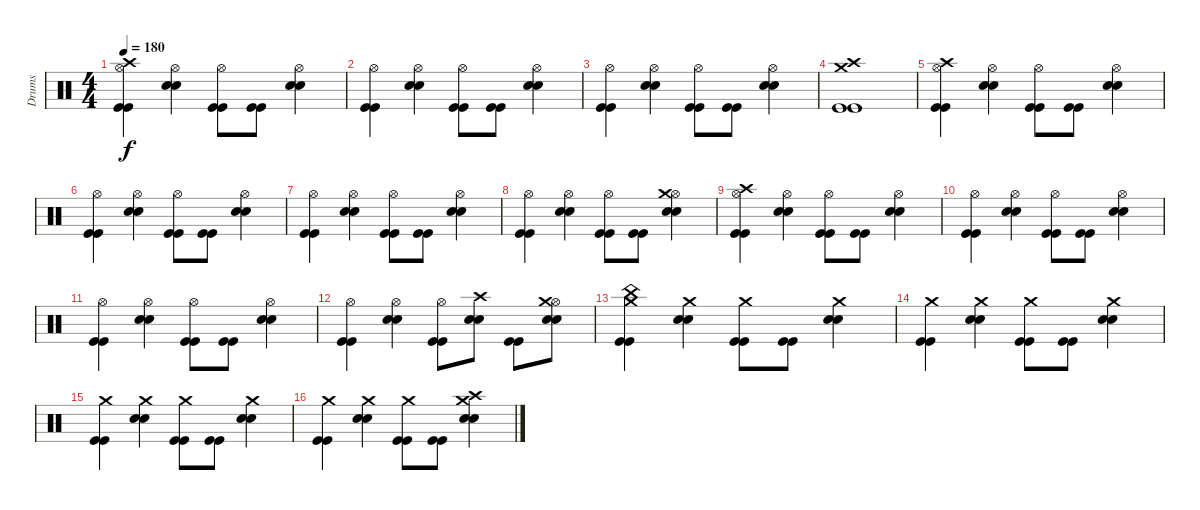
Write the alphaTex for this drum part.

\track ("Drums" "Drums") {instrument percussion}
\staff {score}
\articulation defaults
\ts (4 4)
\tempo 180
\clef neutral
\ks c
("Kick (hit)" "Kick (hit)" "Hi-Hat (open)" "Crash high (hit)").4{dy f} ("Snare (hit) 2" "Snare (hit) 2" "Hi-Hat (open)").4 ("Kick (hit)" "Kick (hit)" "Hi-Hat (open)").8 ("Kick (hit)" "Kick (hit)").8 ("Snare (hit) 2" "Snare (hit) 2" "Hi-Hat (open)").4 |
("Kick (hit)" "Kick (hit)" "Hi-Hat (open)").4 ("Snare (hit) 2" "Snare (hit) 2" "Hi-Hat (open)").4 ("Kick (hit)" "Kick (hit)" "Hi-Hat (open)").8 ("Kick (hit)" "Kick (hit)").8 ("Snare (hit) 2" "Snare (hit) 2" "Hi-Hat (open)").4 |
("Kick (hit)" "Kick (hit)" "Hi-Hat (open)").4 ("Snare (hit) 2" "Snare (hit) 2" "Hi-Hat (open)").4 ("Kick (hit)" "Kick (hit)" "Hi-Hat (open)").8 ("Kick (hit)" "Kick (hit)").8 ("Snare (hit) 2" "Snare (hit) 2" "Hi-Hat (open)").4 |
("Kick (hit)" "Kick (hit)" "Crash medium (hit)" "Crash high (hit)").1 |
("Kick (hit)" "Kick (hit)" "Hi-Hat (open)" "Crash high (hit)").4 ("Snare (hit) 2" "Snare (hit) 2" "Hi-Hat (open)").4 ("Kick (hit)" "Kick (hit)" "Hi-Hat (open)").8 ("Kick (hit)" "Kick (hit)").8 ("Snare (hit) 2" "Snare (hit) 2" "Hi-Hat (open)").4 |
("Kick (hit)" "Kick (hit)" "Hi-Hat (open)").4 ("Snare (hit) 2" "Snare (hit) 2" "Hi-Hat (open)").4 ("Kick (hit)" "Kick (hit)" "Hi-Hat (open)").8 ("Kick (hit)" "Kick (hit)").8 ("Snare (hit) 2" "Snare (hit) 2" "Hi-Hat (open)").4 |
("Kick (hit)" "Kick (hit)" "Hi-Hat (open)").4 ("Snare (hit) 2" "Snare (hit) 2" "Hi-Hat (open)").4 ("Kick (hit)" "Kick (hit)" "Hi-Hat (open)").8 ("Kick (hit)" "Kick (hit)").8 ("Snare (hit) 2" "Snare (hit) 2" "Hi-Hat (open)").4 |
("Kick (hit)" "Kick (hit)" "Hi-Hat (open)").4 ("Snare (hit) 2" "Snare (hit) 2" "Hi-Hat (open)").4 ("Kick (hit)" "Kick (hit)" "Hi-Hat (open)").8 ("Kick (hit)" "Kick (hit)").8 ("Snare (hit) 2" "Snare (hit) 2" "Hi-Hat (open)" "Crash medium (hit)").4 |
("Kick (hit)" "Kick (hit)" "Hi-Hat (open)" "Crash high (hit)").4 ("Snare (hit) 2" "Snare (hit) 2" "Hi-Hat (open)").4 ("Kick (hit)" "Kick (hit)" "Hi-Hat (open)").8 ("Kick (hit)" "Kick (hit)").8 ("Snare (hit) 2" "Snare (hit) 2" "Hi-Hat (open)").4 |
("Kick (hit)" "Kick (hit)" "Hi-Hat (open)").4 ("Snare (hit) 2" "Snare (hit) 2" "Hi-Hat (open)").4 ("Kick (hit)" "Kick (hit)" "Hi-Hat (open)").8 ("Kick (hit)" "Kick (hit)").8 ("Snare (hit) 2" "Snare (hit) 2" "Hi-Hat (open)").4 |
("Kick (hit)" "Kick (hit)" "Hi-Hat (open)").4 ("Snare (hit) 2" "Snare (hit) 2" "Hi-Hat (open)").4 ("Kick (hit)" "Kick (hit)" "Hi-Hat (open)").8 ("Kick (hit)" "Kick (hit)").8 ("Snare (hit) 2" "Snare (hit) 2" "Hi-Hat (open)").4 |
("Kick (hit)" "Kick (hit)" "Hi-Hat (open)").4 ("Snare (hit) 2" "Snare (hit) 2" "Hi-Hat (open)").4 ("Kick (hit)" "Kick (hit)" "Hi-Hat (open)").8 ("Snare (hit) 2" "Snare (hit) 2" "Crash high (hit)").8 ("Kick (hit)" "Kick (hit)").8 ("Snare (hit) 2" "Snare (hit) 2" "Hi-Hat (open)" "Crash medium (hit)").8 |
("China (hit)" "Crash medium (hit)" "Kick (hit)" "Kick (hit)").4 ("Crash medium (hit)" "Snare (hit) 2" "Snare (hit) 2").4 ("Crash medium (hit)" "Kick (hit)" "Kick (hit)").8 ("Kick (hit)" "Kick (hit)").8 ("Crash medium (hit)" "Snare (hit) 2" "Snare (hit) 2").4 |
("Crash medium (hit)" "Kick (hit)" "Kick (hit)").4 ("Crash medium (hit)" "Snare (hit) 2" "Snare (hit) 2").4 ("Crash medium (hit)" "Kick (hit)" "Kick (hit)").8 ("Kick (hit)" "Kick (hit)").8 ("Crash medium (hit)" "Snare (hit) 2" "Snare (hit) 2").4 |
("Crash medium (hit)" "Kick (hit)" "Kick (hit)").4 ("Crash medium (hit)" "Snare (hit) 2" "Snare (hit) 2").4 ("Crash medium (hit)" "Kick (hit)" "Kick (hit)").8 ("Kick (hit)" "Kick (hit)").8 ("Crash medium (hit)" "Snare (hit) 2" "Snare (hit) 2").4 |
("Crash medium (hit)" "Kick (hit)" "Kick (hit)").4 ("Crash medium (hit)" "Snare (hit) 2" "Snare (hit) 2").4 ("Crash medium (hit)" "Kick (hit)" "Kick (hit)").8 ("Kick (hit)" "Kick (hit)").8 ("Crash high (hit)" "Crash medium (hit)" "Snare (hit) 2" "Snare (hit) 2").4
